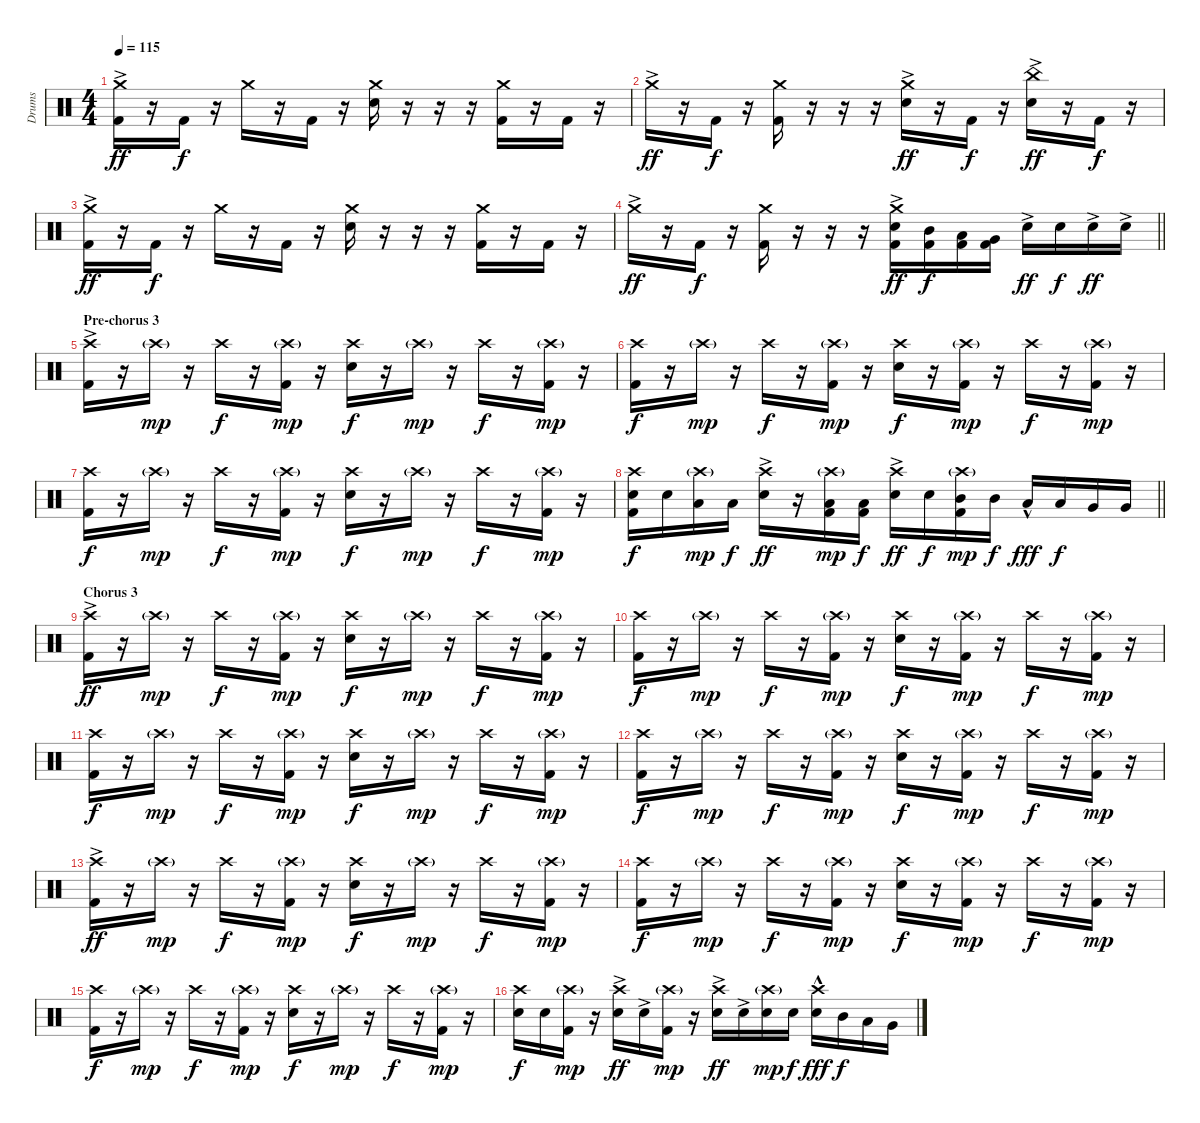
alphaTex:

\track ("Drums" "Drums") {instrument percussion}
\staff {score}
\articulation defaults
\ts (4 4)
\tempo 115
\clef neutral
\ks c
("Crash medium (hit)"{ac} "Kick (hit) 2").16{dy ff} r.16 "Kick (hit) 2".16{dy f} r.16 "Crash medium (hit)".16 r.16 "Kick (hit) 2".16 r.16 ("Crash medium (hit)" "Electric Snare (hit)").16 r.16 r.16 r.16 ("Crash medium (hit)" "Kick (hit) 2").16 r.16 "Kick (hit) 2".16 r.16 |
"Crash medium (hit)"{ac}.16{dy ff} r.16 "Kick (hit) 2".16{dy f} r.16 ("Crash medium (hit)" "Kick (hit) 2").16 r.16 r.16 r.16 ("Crash medium (hit)" "Electric Snare (hit)"{ac}).16{dy ff} r.16 "Kick (hit) 2".16{dy f} r.16 ("China (hit)"{ac} "Electric Snare (hit)"{ac}).16{dy ff} r.16 "Kick (hit) 2".16{dy f} r.16 |
("Crash medium (hit)"{ac} "Kick (hit) 2").16{dy ff} r.16 "Kick (hit) 2".16{dy f} r.16 "Crash medium (hit)".16 r.16 "Kick (hit) 2".16 r.16 ("Crash medium (hit)" "Electric Snare (hit)").16 r.16 r.16 r.16 ("Crash medium (hit)" "Kick (hit) 2").16 r.16 "Kick (hit) 2".16 r.16 |
\barLineRight lightlight "Crash medium (hit)"{ac}.16{dy ff}
r.16 "Kick (hit) 2".16{dy f} r.16 ("Crash medium (hit)" "Kick (hit) 2").16 r.16 r.16 r.16 ("Crash medium (hit)" "Electric Snare (hit)"{ac} "Kick (hit) 2").16{dy ff} ("Mid Tom (hit)" "Kick (hit) 2").16{dy f} ("Low Tom (hit)" "Kick (hit) 2").16 ("Very Low Tom (hit)" "Kick (hit) 2").16 "Electric Snare (hit)"{ac}.16{dy ff} "Electric Snare (hit)".16{dy f} "Electric Snare (hit)"{ac}.16{dy ff} "Electric Snare (hit)"{ac}.16 |
\section ("" "Pre-chorus 3")
("Crash high (hit)"{ac} "Kick (hit) 2").16 r.16 "Crash high (hit)"{g}.16{dy mp} r.16 "Crash high (hit)".16{dy f} r.16 ("Crash high (hit)"{g} "Kick (hit) 2").16{dy mp} r.16 ("Crash high (hit)" "Electric Snare (hit)").16{dy f} r.16 "Crash high (hit)"{g}.16{dy mp} r.16 "Crash high (hit)".16{dy f} r.16 ("Crash high (hit)"{g} "Kick (hit) 2").16{dy mp} r.16 |
("Crash high (hit)" "Kick (hit) 2").16{dy f} r.16 "Crash high (hit)"{g}.16{dy mp} r.16 "Crash high (hit)".16{dy f} r.16 ("Crash high (hit)"{g} "Kick (hit) 2").16{dy mp} r.16 ("Crash high (hit)" "Electric Snare (hit)").16{dy f} r.16 ("Crash high (hit)"{g} "Kick (hit) 2").16{dy mp} r.16 "Crash high (hit)".16{dy f} r.16 ("Crash high (hit)"{g} "Kick (hit) 2").16{dy mp} r.16 |
("Crash high (hit)" "Kick (hit) 2").16{dy f} r.16 "Crash high (hit)"{g}.16{dy mp} r.16 "Crash high (hit)".16{dy f} r.16 ("Crash high (hit)"{g} "Kick (hit) 2").16{dy mp} r.16 ("Crash high (hit)" "Electric Snare (hit)").16{dy f} r.16 "Crash high (hit)"{g}.16{dy mp} r.16 "Crash high (hit)".16{dy f} r.16 ("Crash high (hit)"{g} "Kick (hit) 2").16{dy mp} r.16 |
\barLineRight lightlight
("Crash high (hit)" "Electric Snare (hit)" "Kick (hit) 2").16{dy f} "Electric Snare (hit)".16 ("Crash high (hit)"{g} "Low Tom (hit)").16{dy mp} "Low Tom (hit)".16{dy f} ("Crash high (hit)"{ac} "Electric Snare (hit)"{ac}).16{dy ff} r.16 ("Crash high (hit)"{g} "Low Tom (hit)" "Kick (hit) 2").16{dy mp} ("Low Tom (hit)" "Kick (hit) 2").16{dy f} ("Crash high (hit)"{ac} "Electric Snare (hit)"{ac}).16{dy ff} "Electric Snare (hit)".16{dy f} ("Crash high (hit)"{g} "Mid Tom (hit)" "Kick (hit) 2").16{dy mp} "Mid Tom (hit)".16{dy f} "Low Tom (hit)"{hac}.16{dy fff} "Low Tom (hit)".16{dy f} "Very Low Tom (hit)".16 "Very Low Tom (hit)".16 |
\section ("" "Chorus 3")
("Crash high (hit)"{ac} "Kick (hit) 2").16{dy ff} r.16 "Crash high (hit)"{g}.16{dy mp} r.16 "Crash high (hit)".16{dy f} r.16 ("Crash high (hit)"{g} "Kick (hit) 2").16{dy mp} r.16 ("Crash high (hit)" "Electric Snare (hit)").16{dy f} r.16 "Crash high (hit)"{g}.16{dy mp} r.16 "Crash high (hit)".16{dy f} r.16 ("Crash high (hit)"{g} "Kick (hit) 2").16{dy mp} r.16 |
("Crash high (hit)" "Kick (hit) 2").16{dy f} r.16 "Crash high (hit)"{g}.16{dy mp} r.16 "Crash high (hit)".16{dy f} r.16 ("Crash high (hit)"{g} "Kick (hit) 2").16{dy mp} r.16 ("Crash high (hit)" "Electric Snare (hit)").16{dy f} r.16 ("Crash high (hit)"{g} "Kick (hit) 2").16{dy mp} r.16 "Crash high (hit)".16{dy f} r.16 ("Crash high (hit)"{g} "Kick (hit) 2").16{dy mp} r.16 |
("Crash high (hit)" "Kick (hit) 2").16{dy f} r.16 "Crash high (hit)"{g}.16{dy mp} r.16 "Crash high (hit)".16{dy f} r.16 ("Crash high (hit)"{g} "Kick (hit) 2").16{dy mp} r.16 ("Crash high (hit)" "Electric Snare (hit)").16{dy f} r.16 "Crash high (hit)"{g}.16{dy mp} r.16 "Crash high (hit)".16{dy f} r.16 ("Crash high (hit)"{g} "Kick (hit) 2").16{dy mp} r.16 |
("Crash high (hit)" "Kick (hit) 2").16{dy f} r.16 "Crash high (hit)"{g}.16{dy mp} r.16 "Crash high (hit)".16{dy f} r.16 ("Crash high (hit)"{g} "Kick (hit) 2").16{dy mp} r.16 ("Crash high (hit)" "Electric Snare (hit)").16{dy f} r.16 ("Crash high (hit)"{g} "Kick (hit) 2").16{dy mp} r.16 "Crash high (hit)".16{dy f} r.16 ("Crash high (hit)"{g} "Kick (hit) 2").16{dy mp} r.16 |
("Crash high (hit)"{ac} "Kick (hit) 2").16{dy ff} r.16 "Crash high (hit)"{g}.16{dy mp} r.16 "Crash high (hit)".16{dy f} r.16 ("Crash high (hit)"{g} "Kick (hit) 2").16{dy mp} r.16 ("Crash high (hit)" "Electric Snare (hit)").16{dy f} r.16 "Crash high (hit)"{g}.16{dy mp} r.16 "Crash high (hit)".16{dy f} r.16 ("Crash high (hit)"{g} "Kick (hit) 2").16{dy mp} r.16 |
("Crash high (hit)" "Kick (hit) 2").16{dy f} r.16 "Crash high (hit)"{g}.16{dy mp} r.16 "Crash high (hit)".16{dy f} r.16 ("Crash high (hit)"{g} "Kick (hit) 2").16{dy mp} r.16 ("Crash high (hit)" "Electric Snare (hit)").16{dy f} r.16 ("Crash high (hit)"{g} "Kick (hit) 2").16{dy mp} r.16 "Crash high (hit)".16{dy f} r.16 ("Crash high (hit)"{g} "Kick (hit) 2").16{dy mp} r.16 |
("Crash high (hit)" "Kick (hit) 2").16{dy f} r.16 "Crash high (hit)"{g}.16{dy mp} r.16 "Crash high (hit)".16{dy f} r.16 ("Crash high (hit)"{g} "Kick (hit) 2").16{dy mp} r.16 ("Crash high (hit)" "Electric Snare (hit)").16{dy f} r.16 "Crash high (hit)"{g}.16{dy mp} r.16 "Crash high (hit)".16{dy f} r.16 ("Crash high (hit)"{g} "Kick (hit) 2").16{dy mp} r.16 |
("Crash high (hit)" "Electric Snare (hit)").16{dy f} "Electric Snare (hit)".16 ("Crash high (hit)"{g} "Kick (hit) 2").16{dy mp} r.16 ("Crash high (hit)"{ac} "Electric Snare (hit)"{ac}).16{dy ff} "Electric Snare (hit)"{ac}.16 ("Crash high (hit)"{g} "Kick (hit) 2").16{dy mp} r.16 ("Crash high (hit)"{ac} "Electric Snare (hit)"{ac}).16{dy ff} "Electric Snare (hit)"{ac}.16 ("Crash high (hit)"{g} "Electric Snare (hit)").16{dy mp} "Electric Snare (hit)".16{dy f} ("Crash high (hit)" "Electric Snare (hit)"{hac}).16{dy fff} "Mid Tom (hit)".16{dy f} "Low Tom (hit)".16 "Very Low Tom (hit)".16
